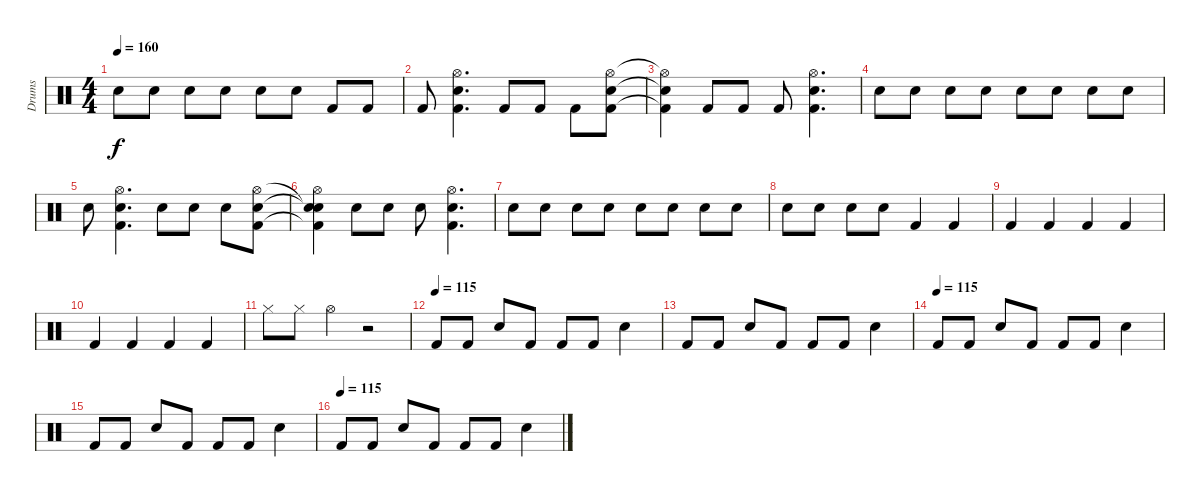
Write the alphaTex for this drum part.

\track ("Drums" "Drums") {instrument percussion}
\staff {score}
\articulation defaults
\ts (4 4)
\tempo 160
\clef neutral
\ks c "Snare (hit) 2".8{dy f} "Snare (hit) 2".8 "Snare (hit) 2".8 "Snare (hit) 2".8 "Snare (hit) 2".8 "Snare (hit) 2".8 "Kick (hit) 2".8 "Kick (hit) 2".8
|
"Kick (hit) 2".8 ("Kick (hit) 2" "Snare (hit) 2" "Hi-Hat (open)").4{d} "Kick (hit) 2".8 "Kick (hit) 2".8 "Kick (hit) 2".8 ("Kick (hit) 2" "Snare (hit) 2" "Hi-Hat (open)").8 |
("Kick (hit) 2"{t} "Snare (hit) 2"{t} "Hi-Hat (open)"{t}).4 "Kick (hit) 2".8 "Kick (hit) 2".8 "Kick (hit) 2".8 ("Kick (hit) 2" "Snare (hit) 2" "Hi-Hat (open)").4{d} |
"Snare (hit) 2".8 "Snare (hit) 2".8 "Snare (hit) 2".8 "Snare (hit) 2".8 "Snare (hit) 2".8 "Snare (hit) 2".8 "Snare (hit) 2".8 "Snare (hit) 2".8 |
"Snare (hit) 2".8 ("Kick (hit) 2" "Snare (hit) 2" "Hi-Hat (open)").4{d} "Snare (hit) 2".8 "Snare (hit) 2".8 "Snare (hit) 2".8 ("Kick (hit) 2" "Snare (hit) 2" "Hi-Hat (open)").8 |
("Kick (hit) 2"{t} "Snare (hit)"{t} "Snare (hit) 2"{t} "Hi-Hat (open)").4 "Snare (hit) 2".8 "Snare (hit) 2".8 "Snare (hit) 2".8 ("Kick (hit) 2" "Snare (hit) 2" "Hi-Hat (open)").4{d} |
"Snare (hit) 2".8 "Snare (hit) 2".8 "Snare (hit) 2".8 "Snare (hit) 2".8 "Snare (hit) 2".8 "Snare (hit) 2".8 "Snare (hit) 2".8 "Snare (hit) 2".8 |
"Snare (hit) 2".8 "Snare (hit) 2".8 "Snare (hit) 2".8 "Snare (hit) 2".8 "Kick (hit) 2".4 "Kick (hit) 2".4 |
"Kick (hit) 2".4 "Kick (hit) 2".4 "Kick (hit) 2".4 "Kick (hit) 2".4 |
"Kick (hit) 2".4 "Kick (hit) 2".4 "Kick (hit) 2".4 "Kick (hit) 2".4 |
"Hi-Hat (closed)".8 "Hi-Hat (closed)".8 "Hi-Hat (open)".4 r.2 |
\tempo (115)
"Kick (hit) 2".8{volume 10} "Kick (hit) 2".8 "Snare (hit) 2".8 "Kick (hit) 2".8 "Kick (hit) 2".8 "Kick (hit) 2".8 "Snare (hit) 2".4 |
"Kick (hit) 2".8 "Kick (hit) 2".8 "Snare (hit) 2".8 "Kick (hit) 2".8 "Kick (hit) 2".8 "Kick (hit) 2".8 "Snare (hit) 2".4 |
\tempo (115)
"Kick (hit) 2".8 "Kick (hit) 2".8 "Snare (hit) 2".8 "Kick (hit) 2".8 "Kick (hit) 2".8 "Kick (hit) 2".8 "Snare (hit) 2".4 |
"Kick (hit) 2".8 "Kick (hit) 2".8 "Snare (hit) 2".8 "Kick (hit) 2".8 "Kick (hit) 2".8 "Kick (hit) 2".8 "Snare (hit) 2".4 |
\tempo (115)
"Kick (hit) 2".8 "Kick (hit) 2".8 "Snare (hit) 2".8 "Kick (hit) 2".8 "Kick (hit) 2".8 "Kick (hit) 2".8 "Snare (hit) 2".4
